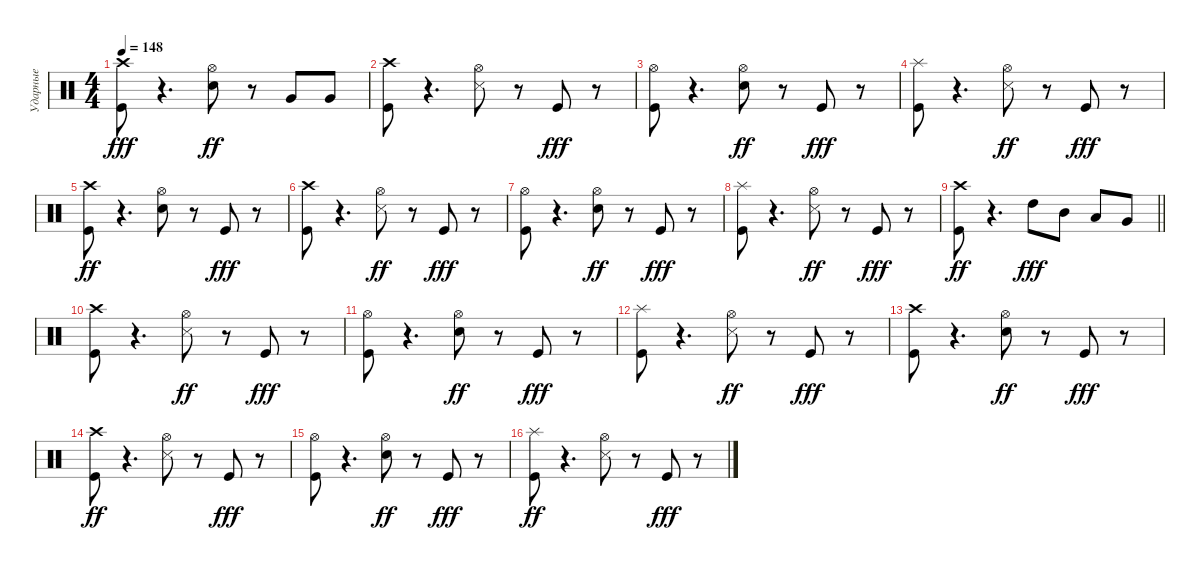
\track ("Ударные" "Ударные") {instrument percussion}
\staff {score}
\articulation defaults
\ts (4 4)
\tempo 148
\clef neutral
\ks c
("Crash high (hit)" "Kick (hit)").8{dy fff} r.4{d} ("Snare (hit) 2" "Hi-Hat (open)").8{dy ff} r.8 "Very Low Tom (hit)".8 "Very Low Tom (hit)".8 |
("Kick (hit)" "Crash high (hit)").8 r.4{d} ("Snare (side stick) 3" "Hi-Hat (open)").8 r.8 "Kick (hit)".8{dy fff} r.8 |
("Hi-Hat (open)" "Kick (hit)").8 r.4{d} ("Hi-Hat (open)" "Snare (hit) 2").8{dy ff} r.8 "Kick (hit)".8{dy fff} r.8 |
("Splash (hit)" "Kick (hit)").8 r.4{d} ("Hi-Hat (open)" "Snare (side stick) 3").8{dy ff} r.8 "Kick (hit)".8{dy fff} r.8 |
("Kick (hit)" "Crash high (hit)").8{dy ff} r.4{d} ("Hi-Hat (open)" "Snare (hit) 2").8 r.8 "Kick (hit)".8{dy fff} r.8 |
("Crash high (hit)" "Kick (hit)").8 r.4{d} ("Snare (side stick) 3" "Hi-Hat (open)").8{dy ff} r.8 "Kick (hit)".8{dy fff} r.8 |
("Hi-Hat (open)" "Kick (hit)").8 r.4{d} ("Hi-Hat (open)" "Snare (hit) 2").8{dy ff} r.8 "Kick (hit)".8{dy fff} r.8 |
("Splash (hit)" "Kick (hit)").8 r.4{d} ("Snare (side stick) 3" "Hi-Hat (open)").8{dy ff} r.8 "Kick (hit)".8{dy fff} r.8 |
\barLineRight lightlight
("Kick (hit)" "Crash high (hit)").8{dy ff} r.4{d} "High Tom (hit)".8{dy fff} "Mid Tom (hit)".8 "Low Tom (hit)".8 "Very Low Tom (hit)".8 |
("Crash high (hit)" "Kick (hit)").8 r.4{d} ("Hi-Hat (open)" "Snare (side stick) 3").8{dy ff} r.8 "Kick (hit)".8{dy fff} r.8 |
("Hi-Hat (open)" "Kick (hit)").8 r.4{d} ("Hi-Hat (open)" "Snare (hit) 2").8{dy ff} r.8 "Kick (hit)".8{dy fff} r.8 |
("Splash (hit)" "Kick (hit)").8 r.4{d} ("Hi-Hat (open)" "Snare (side stick) 3").8{dy ff} r.8 "Kick (hit)".8{dy fff} r.8 |
("Crash high (hit)" "Kick (hit)").8 r.4{d} ("Hi-Hat (open)" "Snare (hit) 2").8{dy ff} r.8 "Kick (hit)".8{dy fff} r.8 |
("Kick (hit)" "Crash high (hit)").8{dy ff} r.4{d} ("Snare (side stick) 3" "Hi-Hat (open)").8 r.8 "Kick (hit)".8{dy fff} r.8 |
("Hi-Hat (open)" "Kick (hit)").8 r.4{d} ("Hi-Hat (open)" "Snare (hit) 2").8{dy ff} r.8 "Kick (hit)".8{dy fff} r.8 |
("Kick (hit)" "Splash (hit)").8{dy ff} r.4{d} ("Snare (side stick) 3" "Hi-Hat (open)").8 r.8 "Kick (hit)".8{dy fff} r.8
